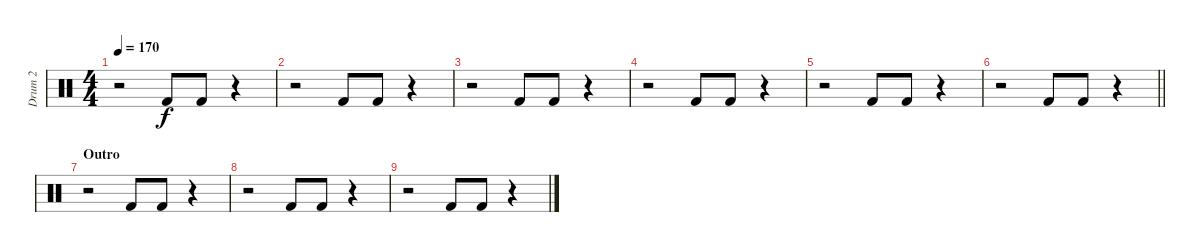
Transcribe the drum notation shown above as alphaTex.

\track ("Drum 2" "Drum 2") {instrument percussion}
\staff {score}
\articulation defaults
\ts (4 4)
\tempo 170
\clef neutral
\ks c
r.2{dy f} "Kick (hit) 2".8 "Kick (hit) 2".8 r.4 |
r.2 "Kick (hit) 2".8 "Kick (hit) 2".8 r.4 |
r.2 "Kick (hit) 2".8 "Kick (hit) 2".8 r.4 |
r.2 "Kick (hit) 2".8 "Kick (hit) 2".8 r.4 |
r.2 "Kick (hit) 2".8 "Kick (hit) 2".8 r.4 |
\barLineRight lightlight
r.2 "Kick (hit) 2".8 "Kick (hit) 2".8 r.4 |
\section ("" "Outro")
r.2 "Kick (hit) 2".8 "Kick (hit) 2".8 r.4 |
r.2 "Kick (hit) 2".8 "Kick (hit) 2".8 r.4 |
r.2 "Kick (hit) 2".8 "Kick (hit) 2".8 r.4
